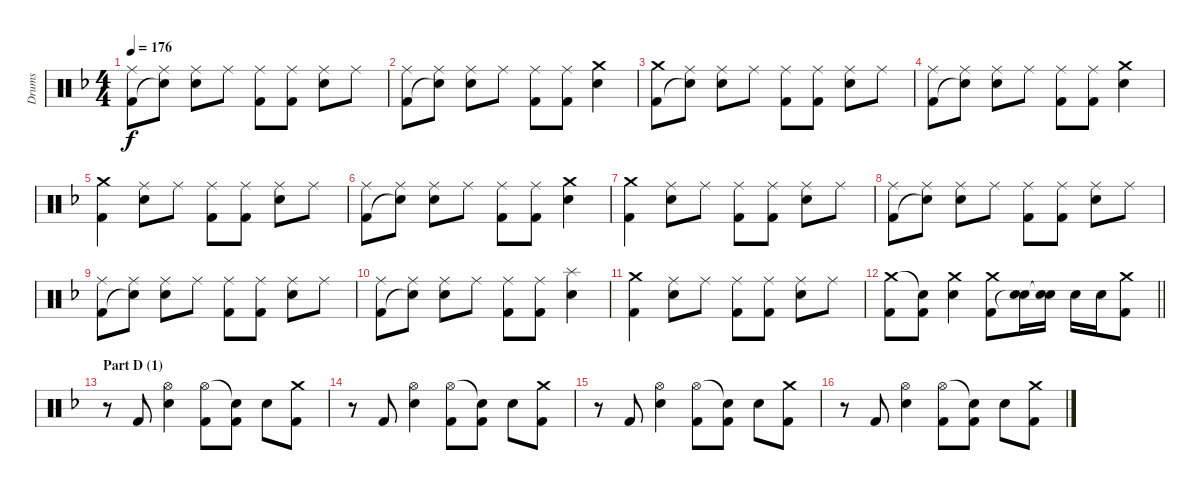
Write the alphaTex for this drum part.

\track ("Drums" "Drums") {instrument percussion}
\staff {score}
\articulation defaults
\ts (4 4)
\tempo 176
\clef neutral
\ks f
("Ride (middle)" "Kick (hit) 2").8{dy f} ("Ride (middle)" "Snare (hit)"{t}).8 ("Ride (middle)" "Electric Snare (hit)").8 "Ride (middle)".8 ("Ride (middle)" "Kick (hit) 2").8 ("Ride (middle)" "Kick (hit) 2").8 ("Ride (middle)" "Electric Snare (hit)").8 "Ride (middle)".8 |
("Ride (middle)" "Kick (hit) 2").8 ("Ride (middle)" "Snare (hit)"{t}).8 ("Ride (middle)" "Electric Snare (hit)").8 "Ride (middle)".8 ("Ride (middle)" "Kick (hit) 2").8 ("Ride (middle)" "Kick (hit) 2").8 ("Crash medium (hit)" "Electric Snare (hit)").4 |
("Crash medium (hit)" "Kick (hit) 2").8 ("Ride (middle)" "Snare (hit)"{t}).8 ("Ride (middle)" "Electric Snare (hit)").8 "Ride (middle)".8 ("Ride (middle)" "Kick (hit) 2").8 ("Ride (middle)" "Kick (hit) 2").8 ("Ride (middle)" "Electric Snare (hit)").8 "Ride (middle)".8 |
("Ride (middle)" "Kick (hit) 2").8 ("Ride (middle)" "Snare (hit)"{t}).8 ("Ride (middle)" "Electric Snare (hit)").8 "Ride (middle)".8 ("Ride (middle)" "Kick (hit) 2").8 ("Ride (middle)" "Kick (hit) 2").8 ("Crash medium (hit)" "Electric Snare (hit)").4 |
("Crash medium (hit)" "Kick (hit) 2").4 ("Ride (middle)" "Electric Snare (hit)").8 "Ride (middle)".8 ("Ride (middle)" "Kick (hit) 2").8 ("Ride (middle)" "Kick (hit) 2").8 ("Ride (middle)" "Electric Snare (hit)").8 "Ride (middle)".8 |
("Ride (middle)" "Kick (hit) 2").8 ("Ride (middle)" "Snare (hit)"{t}).8 ("Ride (middle)" "Electric Snare (hit)").8 "Ride (middle)".8 ("Ride (middle)" "Kick (hit) 2").8 ("Ride (middle)" "Kick (hit) 2").8 ("Crash medium (hit)" "Electric Snare (hit)").4 |
("Crash medium (hit)" "Kick (hit) 2").4 ("Ride (middle)" "Electric Snare (hit)").8 "Ride (middle)".8 ("Ride (middle)" "Kick (hit) 2").8 ("Ride (middle)" "Kick (hit) 2").8 ("Ride (middle)" "Electric Snare (hit)").8 "Ride (middle)".8 |
("Ride (middle)" "Kick (hit) 2").8 ("Ride (middle)" "Snare (hit)"{t}).8 ("Ride (middle)" "Electric Snare (hit)").8 "Ride (middle)".8 ("Ride (middle)" "Kick (hit) 2").8 ("Ride (middle)" "Kick (hit) 2").8 ("Ride (middle)" "Electric Snare (hit)").8 "Ride (middle)".8 |
("Ride (middle)" "Kick (hit) 2").8 ("Ride (middle)" "Snare (hit)"{t}).8 ("Ride (middle)" "Electric Snare (hit)").8 "Ride (middle)".8 ("Ride (middle)" "Kick (hit) 2").8 ("Ride (middle)" "Kick (hit) 2").8 ("Ride (middle)" "Electric Snare (hit)").8 "Ride (middle)".8 |
("Ride (middle)" "Kick (hit) 2").8 ("Ride (middle)" "Snare (hit)"{t}).8 ("Ride (middle)" "Electric Snare (hit)").8 "Ride (middle)".8 ("Ride (middle)" "Kick (hit) 2").8 ("Ride (middle)" "Kick (hit) 2").8 ("Splash (hit)" "Electric Snare (hit)").4 |
("Crash medium (hit)" "Kick (hit) 2").4 ("Ride (middle)" "Electric Snare (hit)").8 "Ride (middle)".8 ("Ride (middle)" "Kick (hit) 2").8 ("Ride (middle)" "Kick (hit) 2").8 ("Ride (middle)" "Electric Snare (hit)").8 "Ride (middle)".8 |
\barLineRight lightlight
("Crash medium (hit)" "Kick (hit) 2").8 ("Snare (hit)"{t} "Kick (hit) 2").8 ("Crash medium (hit)" "Electric Snare (hit)").4 ("Crash medium (hit)" "Kick (hit) 2").8 ("Electric Snare (hit)" "Snare (hit)"{t}).16 ("Electric Snare (hit)" "Snare (hit)"{t}).16 "Electric Snare (hit)".16 "Electric Snare (hit)".16 ("Crash medium (hit)" "Kick (hit) 2").8 |
\section ("" "Part D (1)")
r.8 "Kick (hit) 2".8 ("Hi-Hat (open)" "Electric Snare (hit)").4 ("Hi-Hat (open)" "Kick (hit) 2").8 ("Snare (hit)"{t} "Kick (hit) 2").8 "Electric Snare (hit)".8 ("Crash medium (hit)" "Kick (hit) 2").8 |
r.8 "Kick (hit) 2".8 ("Hi-Hat (open)" "Electric Snare (hit)").4 ("Hi-Hat (open)" "Kick (hit) 2").8 ("Snare (hit)"{t} "Kick (hit) 2").8 "Electric Snare (hit)".8 ("Crash medium (hit)" "Kick (hit) 2").8 |
r.8 "Kick (hit) 2".8 ("Hi-Hat (open)" "Electric Snare (hit)").4 ("Hi-Hat (open)" "Kick (hit) 2").8 ("Snare (hit)"{t} "Kick (hit) 2").8 "Electric Snare (hit)".8 ("Crash medium (hit)" "Kick (hit) 2").8 |
r.8 "Kick (hit) 2".8 ("Hi-Hat (open)" "Electric Snare (hit)").4 ("Hi-Hat (open)" "Kick (hit) 2").8 ("Snare (hit)"{t} "Kick (hit) 2").8 "Electric Snare (hit)".8 ("Crash medium (hit)" "Kick (hit) 2").8
